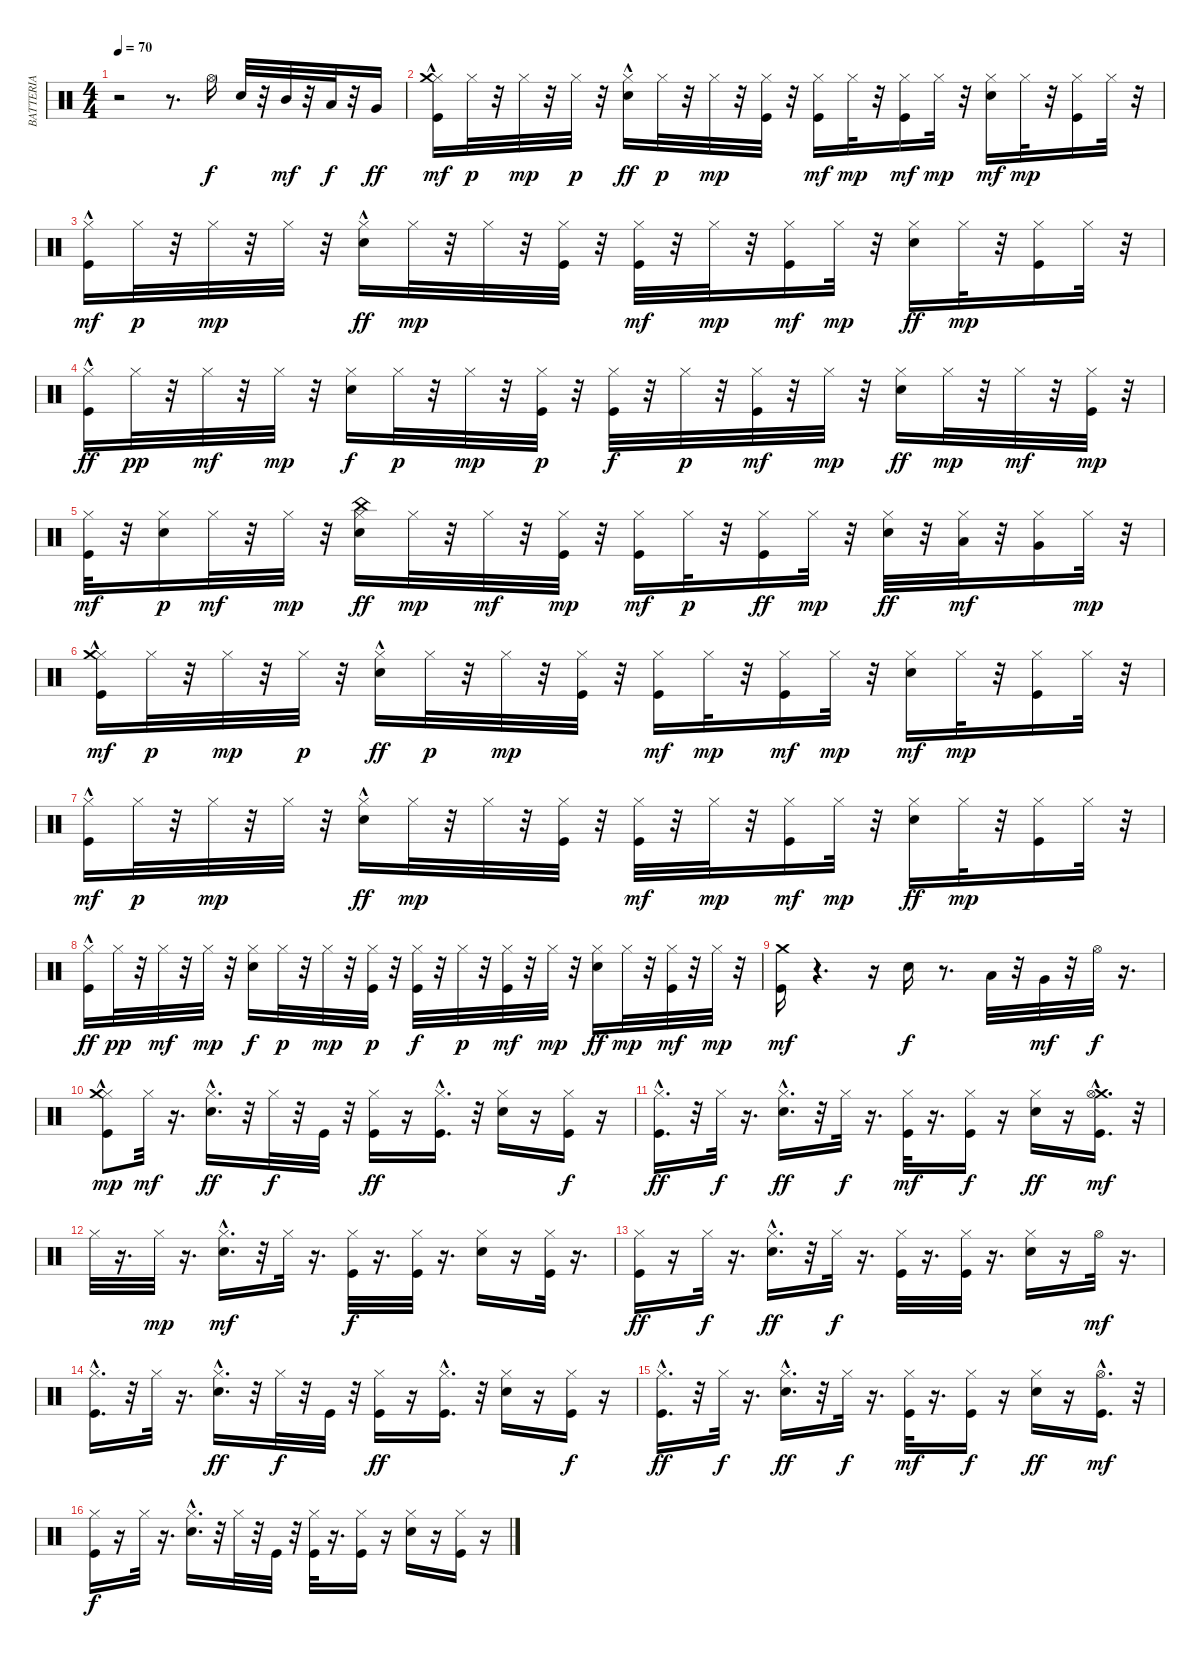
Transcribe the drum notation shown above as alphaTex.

\track ("BATTERIA" "BATTERIA") {instrument percussion}
\staff {score}
\articulation defaults
\ts (4 4)
\tempo 70
\clef neutral
\ks c
r.2{dy f} r.8{d} "Hi-Hat (open)".16 "Snare (hit) 2".32 r.32 "Mid Tom (hit)".32{dy mf} r.32 "Low Tom (hit)".32{dy f} r.32 "Very Low Tom (hit)".16{dy ff} |
("Hi-Hat (closed)" "Kick (hit)"{hac} "Crash medium (hit)"{hac}).16{dy mf} "Hi-Hat (closed)".32{dy p} r.32 "Hi-Hat (closed)".32{dy mp} r.32 "Hi-Hat (closed)".32{dy p} r.32 ("Hi-Hat (closed)" "Snare (hit) 2"{hac}).16{dy ff} "Hi-Hat (closed)".32{dy p} r.32 "Hi-Hat (closed)".32{dy mp} r.32 ("Kick (hit)" "Hi-Hat (closed)").32 r.32 ("Kick (hit)" "Hi-Hat (closed)").16{dy mf} "Hi-Hat (closed)".32{dy mp} r.32 ("Kick (hit)" "Hi-Hat (closed)").16{dy mf} "Hi-Hat (closed)".32{dy mp} r.32 ("Snare (hit) 2" "Hi-Hat (closed)").16{dy mf} "Hi-Hat (closed)".32{dy mp} r.32 ("Hi-Hat (closed)" "Kick (hit)").16 "Hi-Hat (closed)".32 r.32 |
("Kick (hit)"{hac} "Hi-Hat (closed)").16{dy mf} "Hi-Hat (closed)".32{dy p} r.32 "Hi-Hat (closed)".32{dy mp} r.32 "Hi-Hat (closed)".32 r.32 ("Hi-Hat (closed)" "Snare (hit) 2"{hac}).16{dy ff} "Hi-Hat (closed)".32{dy mp} r.32 "Hi-Hat (closed)".32 r.32 ("Kick (hit)" "Hi-Hat (closed)").32 r.32 ("Hi-Hat (closed)" "Kick (hit)").32{dy mf} r.32 "Hi-Hat (closed)".32{dy mp} r.32 ("Hi-Hat (closed)" "Kick (hit)").16{dy mf} "Hi-Hat (closed)".32{dy mp} r.32 ("Hi-Hat (closed)" "Snare (hit) 2").16{dy ff} "Hi-Hat (closed)".32{dy mp} r.32 ("Hi-Hat (closed)" "Kick (hit)").16 "Hi-Hat (closed)".32 r.32 |
("Kick (hit)"{hac} "Hi-Hat (closed)").16{dy ff} "Hi-Hat (closed)".32{dy pp} r.32 "Hi-Hat (closed)".32{dy mf} r.32 "Hi-Hat (closed)".32{dy mp} r.32 ("Snare (hit) 2" "Hi-Hat (closed)").16{dy f} "Hi-Hat (closed)".32{dy p} r.32 "Hi-Hat (closed)".32{dy mp} r.32 ("Kick (hit)" "Hi-Hat (closed)").32{dy p} r.32 ("Kick (hit)" "Hi-Hat (closed)").32{dy f} r.32 "Hi-Hat (closed)".32{dy p} r.32 ("Kick (hit)" "Hi-Hat (closed)").32{dy mf} r.32 "Hi-Hat (closed)".32{dy mp} r.32 ("Hi-Hat (closed)" "Snare (hit) 2").16{dy ff} "Hi-Hat (closed)".32{dy mp} r.32 "Hi-Hat (closed)".32{dy mf} r.32 ("Hi-Hat (closed)" "Kick (hit)").32{dy mp} r.32 |
("Hi-Hat (closed)" "Kick (hit)").32{dy mf} r.32 ("Snare (hit) 2" "Hi-Hat (closed)").16{dy p} "Hi-Hat (closed)".32{dy mf} r.32 "Hi-Hat (closed)".32{dy mp} r.32 ("China (hit)" "Hi-Hat (closed)" "Snare (hit) 2").16{dy ff} "Hi-Hat (closed)".32{dy mp} r.32 "Hi-Hat (closed)".32{dy mf} r.32 ("Kick (hit)" "Hi-Hat (closed)").32{dy mp} r.32 ("Kick (hit)" "Hi-Hat (closed)").16{dy mf} "Hi-Hat (closed)".32{dy p} r.32 ("Kick (hit)" "Hi-Hat (closed)").16{dy ff} "Hi-Hat (closed)".32{dy mp} r.32 ("Hi-Hat (closed)" "Snare (hit) 2").32{dy ff} r.32 ("Hi-Hat (closed)" "Low Tom (hit)").32{dy mf} r.32 ("Very Low Tom (hit)" "Hi-Hat (closed)").16 "Hi-Hat (closed)".32{dy mp} r.32 |
("Hi-Hat (closed)" "Kick (hit)"{hac} "Crash medium (hit)"{hac}).16{dy mf} "Hi-Hat (closed)".32{dy p} r.32 "Hi-Hat (closed)".32{dy mp} r.32 "Hi-Hat (closed)".32{dy p} r.32 ("Hi-Hat (closed)" "Snare (hit) 2"{hac}).16{dy ff} "Hi-Hat (closed)".32{dy p} r.32 "Hi-Hat (closed)".32{dy mp} r.32 ("Kick (hit)" "Hi-Hat (closed)").32 r.32 ("Kick (hit)" "Hi-Hat (closed)").16{dy mf} "Hi-Hat (closed)".32{dy mp} r.32 ("Kick (hit)" "Hi-Hat (closed)").16{dy mf} "Hi-Hat (closed)".32{dy mp} r.32 ("Snare (hit) 2" "Hi-Hat (closed)").16{dy mf} "Hi-Hat (closed)".32{dy mp} r.32 ("Hi-Hat (closed)" "Kick (hit)").16 "Hi-Hat (closed)".32 r.32 |
("Kick (hit)"{hac} "Hi-Hat (closed)").16{dy mf} "Hi-Hat (closed)".32{dy p} r.32 "Hi-Hat (closed)".32{dy mp} r.32 "Hi-Hat (closed)".32 r.32 ("Hi-Hat (closed)" "Snare (hit) 2"{hac}).16{dy ff} "Hi-Hat (closed)".32{dy mp} r.32 "Hi-Hat (closed)".32 r.32 ("Kick (hit)" "Hi-Hat (closed)").32 r.32 ("Hi-Hat (closed)" "Kick (hit)").32{dy mf} r.32 "Hi-Hat (closed)".32{dy mp} r.32 ("Hi-Hat (closed)" "Kick (hit)").16{dy mf} "Hi-Hat (closed)".32{dy mp} r.32 ("Hi-Hat (closed)" "Snare (hit) 2").16{dy ff} "Hi-Hat (closed)".32{dy mp} r.32 ("Hi-Hat (closed)" "Kick (hit)").16 "Hi-Hat (closed)".32 r.32 |
("Kick (hit)"{hac} "Hi-Hat (closed)").16{dy ff} "Hi-Hat (closed)".32{dy pp} r.32 "Hi-Hat (closed)".32{dy mf} r.32 "Hi-Hat (closed)".32{dy mp} r.32 ("Snare (hit) 2" "Hi-Hat (closed)").16{dy f} "Hi-Hat (closed)".32{dy p} r.32 "Hi-Hat (closed)".32{dy mp} r.32 ("Kick (hit)" "Hi-Hat (closed)").32{dy p} r.32 ("Kick (hit)" "Hi-Hat (closed)").32{dy f} r.32 "Hi-Hat (closed)".32{dy p} r.32 ("Kick (hit)" "Hi-Hat (closed)").32{dy mf} r.32 "Hi-Hat (closed)".32{dy mp} r.32 ("Hi-Hat (closed)" "Snare (hit) 2").16{dy ff} "Hi-Hat (closed)".32{dy mp} r.32 ("Hi-Hat (closed)" "Kick (hit)").32{dy mf} r.32 "Hi-Hat (closed)".32{dy mp} r.32 |
("Kick (hit)" "Crash medium (hit)").16{dy mf} r.4{d} r.16 "Snare (hit) 2".16{dy f} r.8{d} "Low Tom (hit)".32 r.32 "Very Low Tom (hit)".32{dy mf} r.32 "Hi-Hat (open)".32{dy f} r.16{d} |
("Kick (hit)"{hac} "Hi-Hat (closed)" "Crash medium (hit)").8{dy mp} "Hi-Hat (closed)".32{dy mf} r.16{d} ("Hi-Hat (closed)" "Snare (hit) 2"{hac}).16{d dy ff} r.32 "Hi-Hat (closed)".32{dy f} r.32 "Kick (hit)".32 r.32 ("Kick (hit)" "Hi-Hat (closed)").16{dy ff} r.16 ("Kick (hit)"{hac} "Hi-Hat (closed)").16{d} r.32 ("Snare (hit) 2" "Hi-Hat (closed)").16 r.16 ("Hi-Hat (closed)" "Kick (hit)").16{dy f} r.16 |
("Kick (hit)"{hac} "Hi-Hat (closed)").16{d dy ff} r.32 "Hi-Hat (closed)".32{dy f} r.16{d} ("Snare (hit) 2"{hac} "Hi-Hat (closed)").16{d dy ff} r.32 "Hi-Hat (closed)".32{dy f} r.16{d} ("Kick (hit)" "Hi-Hat (closed)").32{dy mf} r.16{d} ("Kick (hit)" "Hi-Hat (closed)").16{dy f} r.16 ("Snare (hit) 2" "Hi-Hat (closed)").16{dy ff} r.16 ("Crash medium (hit)" "Kick (hit)"{hac} "Hi-Hat (open)").16{d dy mf} r.32 |
"Hi-Hat (closed)".32 r.16{d} "Hi-Hat (closed)".32{dy mp} r.16{d} ("Snare (hit) 2"{hac} "Hi-Hat (closed)").16{d dy mf} r.32 "Hi-Hat (closed)".32 r.16{d} ("Hi-Hat (closed)" "Kick (hit)").32{dy f} r.16{d} ("Hi-Hat (closed)" "Kick (hit)").32 r.16{d} ("Hi-Hat (closed)" "Snare (hit) 2").16 r.16 ("Hi-Hat (closed)" "Kick (hit)").32 r.16{d} |
("Hi-Hat (closed)" "Kick (hit)").16{dy ff} r.16 "Hi-Hat (closed)".32{dy f} r.16{d} ("Hi-Hat (closed)" "Snare (hit) 2"{hac}).16{d dy ff} r.32 "Hi-Hat (closed)".32{dy f} r.16{d} ("Kick (hit)" "Hi-Hat (closed)").32 r.16{d} ("Hi-Hat (closed)" "Kick (hit)").32 r.16{d} ("Hi-Hat (closed)" "Snare (hit) 2").16 r.16 "Hi-Hat (open)".32{dy mf} r.16{d} |
("Kick (hit)"{hac} "Hi-Hat (closed)").16{d} r.32 "Hi-Hat (closed)".32 r.16{d} ("Hi-Hat (closed)" "Snare (hit) 2"{hac}).16{d dy ff} r.32 "Hi-Hat (closed)".32{dy f} r.32 "Kick (hit)".32 r.32 ("Kick (hit)" "Hi-Hat (closed)").16{dy ff} r.16 ("Kick (hit)"{hac} "Hi-Hat (closed)").16{d} r.32 ("Snare (hit) 2" "Hi-Hat (closed)").16 r.16 ("Hi-Hat (closed)" "Kick (hit)").16{dy f} r.16 |
("Kick (hit)"{hac} "Hi-Hat (closed)").16{d dy ff} r.32 "Hi-Hat (closed)".32{dy f} r.16{d} ("Snare (hit) 2"{hac} "Hi-Hat (closed)").16{d dy ff} r.32 "Hi-Hat (closed)".32{dy f} r.16{d} ("Kick (hit)" "Hi-Hat (closed)").32{dy mf} r.16{d} ("Kick (hit)" "Hi-Hat (closed)").16{dy f} r.16 ("Snare (hit) 2" "Hi-Hat (closed)").16{dy ff} r.16 ("Kick (hit)"{hac} "Hi-Hat (open)").16{d dy mf} r.32 |
("Kick (hit)" "Hi-Hat (closed)").16{dy f} r.16 "Hi-Hat (closed)".32 r.16{d} ("Hi-Hat (closed)" "Snare (hit) 2"{hac}).16{d} r.32 "Hi-Hat (closed)".32 r.32 "Kick (hit)".32 r.32 ("Hi-Hat (closed)" "Kick (hit)").32 r.16{d} ("Hi-Hat (closed)" "Kick (hit)").16 r.16 ("Hi-Hat (closed)" "Snare (hit) 2").16 r.16 ("Hi-Hat (closed)" "Kick (hit)").16 r.16
